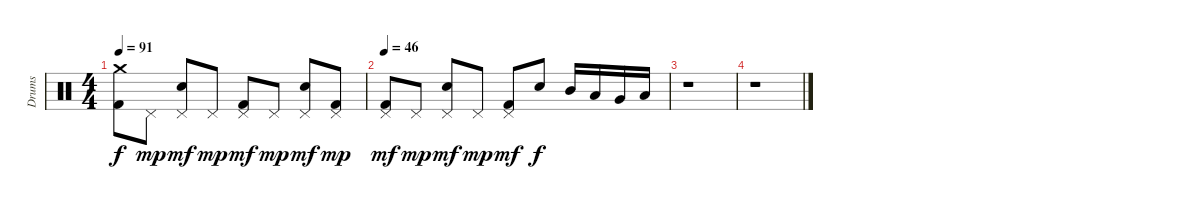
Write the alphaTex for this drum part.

\track ("Drums" "Drums") {instrument percussion}
\staff {score}
\articulation defaults
\ts (4 4)
\tempo 91
\clef neutral
\ks c
("Crash medium (hit)" "Kick (hit) 2").8{dy f} "Pedal Hi-Hat (hit)".8{dy mp} ("Pedal Hi-Hat (hit)" "Snare (hit) 2").8{dy mf} "Pedal Hi-Hat (hit)".8{dy mp} ("Pedal Hi-Hat (hit)" "Kick (hit) 2").8{dy mf} "Pedal Hi-Hat (hit)".8{dy mp} ("Pedal Hi-Hat (hit)" "Snare (hit) 2").8{dy mf} ("Pedal Hi-Hat (hit)" "Kick (hit) 2").8{dy mp} |
\tempo 46
("Pedal Hi-Hat (hit)" "Kick (hit) 2").8{dy mf} "Pedal Hi-Hat (hit)".8{dy mp} ("Pedal Hi-Hat (hit)" "Snare (hit) 2").8{dy mf} "Pedal Hi-Hat (hit)".8{dy mp} ("Pedal Hi-Hat (hit)" "Kick (hit) 2").8{dy mf} "Snare (hit) 2".8{dy f} "Mid Tom (hit)".16 "Low Tom (hit)".16 "Very Low Tom (hit)".16 "Low Floor Tom (hit)".16 |
r.1 |
r.1
